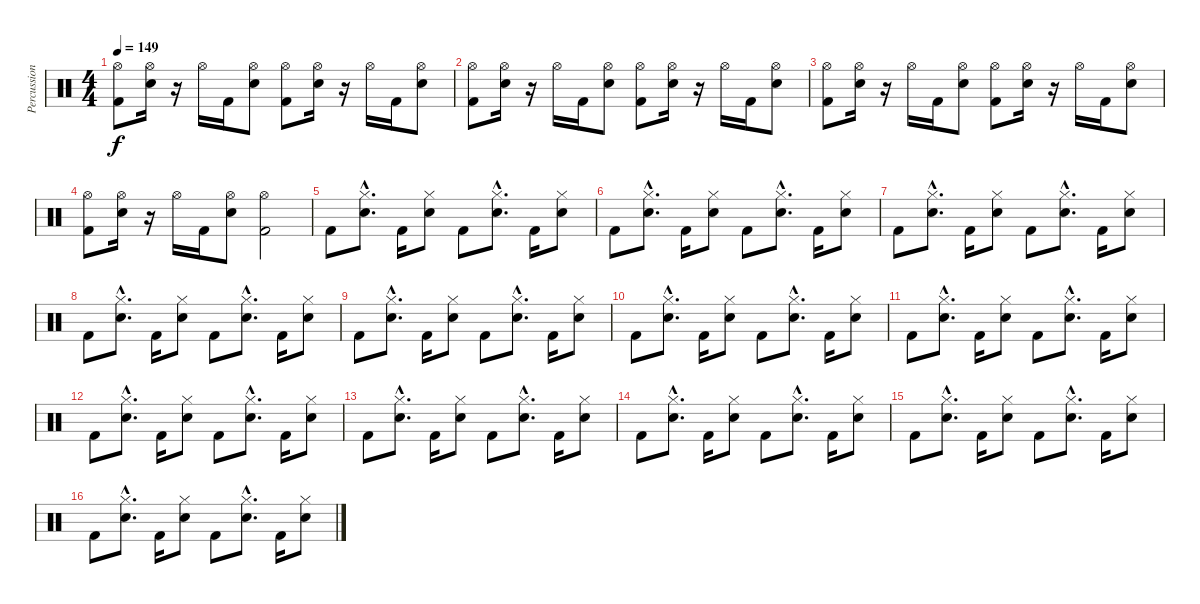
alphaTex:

\track ("Percussion" "Percussion") {instrument percussion}
\staff {score}
\articulation defaults
\ts (4 4)
\tempo 149
\clef neutral
\ks c
("Kick (hit) 2" "Hi-Hat (open)").8{dy f} ("Snare (hit) 2" "Hi-Hat (open)").16 r.16 "Hi-Hat (open)".16 "Kick (hit) 2".16 ("Snare (hit) 2" "Hi-Hat (open)").8 ("Kick (hit) 2" "Hi-Hat (open)").8 ("Snare (hit) 2" "Hi-Hat (open)").16 r.16 "Hi-Hat (open)".16 "Kick (hit) 2".16 ("Snare (hit) 2" "Hi-Hat (open)").8 |
("Kick (hit) 2" "Hi-Hat (open)").8 ("Snare (hit) 2" "Hi-Hat (open)").16 r.16 "Hi-Hat (open)".16 "Kick (hit) 2".16 ("Snare (hit) 2" "Hi-Hat (open)").8 ("Kick (hit) 2" "Hi-Hat (open)").8 ("Snare (hit) 2" "Hi-Hat (open)").16 r.16 "Hi-Hat (open)".16 "Kick (hit) 2".16 ("Snare (hit) 2" "Hi-Hat (open)").8 |
("Kick (hit) 2" "Hi-Hat (open)").8 ("Snare (hit) 2" "Hi-Hat (open)").16 r.16 "Hi-Hat (open)".16 "Kick (hit) 2".16 ("Snare (hit) 2" "Hi-Hat (open)").8 ("Kick (hit) 2" "Hi-Hat (open)").8 ("Snare (hit) 2" "Hi-Hat (open)").16 r.16 "Hi-Hat (open)".16 "Kick (hit) 2".16 ("Snare (hit) 2" "Hi-Hat (open)").8 |
("Kick (hit) 2" "Hi-Hat (open)").8 ("Snare (hit) 2" "Hi-Hat (open)").16 r.16 "Hi-Hat (open)".16 "Kick (hit) 2".16 ("Snare (hit) 2" "Hi-Hat (open)").8 ("Kick (hit) 2" "Hi-Hat (open)").2 |
"Kick (hit) 2".8 ("Snare (hit) 2"{hac} "Hi-Hat (closed)"{hac}).8{d} "Kick (hit) 2".16 ("Snare (hit) 2" "Hi-Hat (closed)").8 "Kick (hit) 2".8 ("Snare (hit) 2"{hac} "Hi-Hat (closed)"{hac}).8{d} "Kick (hit) 2".16 ("Snare (hit) 2" "Hi-Hat (closed)").8 |
"Kick (hit) 2".8 ("Snare (hit) 2"{hac} "Hi-Hat (closed)"{hac}).8{d} "Kick (hit) 2".16 ("Snare (hit) 2" "Hi-Hat (closed)").8 "Kick (hit) 2".8 ("Snare (hit) 2"{hac} "Hi-Hat (closed)"{hac}).8{d} "Kick (hit) 2".16 ("Snare (hit) 2" "Hi-Hat (closed)").8 |
"Kick (hit) 2".8 ("Snare (hit) 2"{hac} "Hi-Hat (closed)"{hac}).8{d} "Kick (hit) 2".16 ("Snare (hit) 2" "Hi-Hat (closed)").8 "Kick (hit) 2".8 ("Snare (hit) 2"{hac} "Hi-Hat (closed)"{hac}).8{d} "Kick (hit) 2".16 ("Snare (hit) 2" "Hi-Hat (closed)").8 |
"Kick (hit) 2".8 ("Snare (hit) 2"{hac} "Hi-Hat (closed)"{hac}).8{d} "Kick (hit) 2".16 ("Snare (hit) 2" "Hi-Hat (closed)").8 "Kick (hit) 2".8 ("Snare (hit) 2"{hac} "Hi-Hat (closed)"{hac}).8{d} "Kick (hit) 2".16 ("Snare (hit) 2" "Hi-Hat (closed)").8 |
"Kick (hit) 2".8 ("Snare (hit) 2"{hac} "Hi-Hat (closed)"{hac}).8{d} "Kick (hit) 2".16 ("Snare (hit) 2" "Hi-Hat (closed)").8 "Kick (hit) 2".8 ("Snare (hit) 2"{hac} "Hi-Hat (closed)"{hac}).8{d} "Kick (hit) 2".16 ("Snare (hit) 2" "Hi-Hat (closed)").8 |
"Kick (hit) 2".8 ("Snare (hit) 2"{hac} "Hi-Hat (closed)"{hac}).8{d} "Kick (hit) 2".16 ("Snare (hit) 2" "Hi-Hat (closed)").8 "Kick (hit) 2".8 ("Snare (hit) 2"{hac} "Hi-Hat (closed)"{hac}).8{d} "Kick (hit) 2".16 ("Snare (hit) 2" "Hi-Hat (closed)").8 |
"Kick (hit) 2".8 ("Snare (hit) 2"{hac} "Hi-Hat (closed)"{hac}).8{d} "Kick (hit) 2".16 ("Snare (hit) 2" "Hi-Hat (closed)").8 "Kick (hit) 2".8 ("Snare (hit) 2"{hac} "Hi-Hat (closed)"{hac}).8{d} "Kick (hit) 2".16 ("Snare (hit) 2" "Hi-Hat (closed)").8 |
"Kick (hit) 2".8 ("Snare (hit) 2"{hac} "Hi-Hat (closed)"{hac}).8{d} "Kick (hit) 2".16 ("Snare (hit) 2" "Hi-Hat (closed)").8 "Kick (hit) 2".8 ("Snare (hit) 2"{hac} "Hi-Hat (closed)"{hac}).8{d} "Kick (hit) 2".16 ("Snare (hit) 2" "Hi-Hat (closed)").8 |
"Kick (hit) 2".8 ("Snare (hit) 2"{hac} "Hi-Hat (closed)"{hac}).8{d} "Kick (hit) 2".16 ("Snare (hit) 2" "Hi-Hat (closed)").8 "Kick (hit) 2".8 ("Snare (hit) 2"{hac} "Hi-Hat (closed)"{hac}).8{d} "Kick (hit) 2".16 ("Snare (hit) 2" "Hi-Hat (closed)").8 |
"Kick (hit) 2".8 ("Snare (hit) 2"{hac} "Hi-Hat (closed)"{hac}).8{d} "Kick (hit) 2".16 ("Snare (hit) 2" "Hi-Hat (closed)").8 "Kick (hit) 2".8 ("Snare (hit) 2"{hac} "Hi-Hat (closed)"{hac}).8{d} "Kick (hit) 2".16 ("Snare (hit) 2" "Hi-Hat (closed)").8 |
"Kick (hit) 2".8 ("Snare (hit) 2"{hac} "Hi-Hat (closed)"{hac}).8{d} "Kick (hit) 2".16 ("Snare (hit) 2" "Hi-Hat (closed)").8 "Kick (hit) 2".8 ("Snare (hit) 2"{hac} "Hi-Hat (closed)"{hac}).8{d} "Kick (hit) 2".16 ("Snare (hit) 2" "Hi-Hat (closed)").8 |
"Kick (hit) 2".8 ("Snare (hit) 2"{hac} "Hi-Hat (closed)"{hac}).8{d} "Kick (hit) 2".16 ("Snare (hit) 2" "Hi-Hat (closed)").8 "Kick (hit) 2".8 ("Snare (hit) 2"{hac} "Hi-Hat (closed)"{hac}).8{d} "Kick (hit) 2".16 ("Snare (hit) 2" "Hi-Hat (closed)").8
